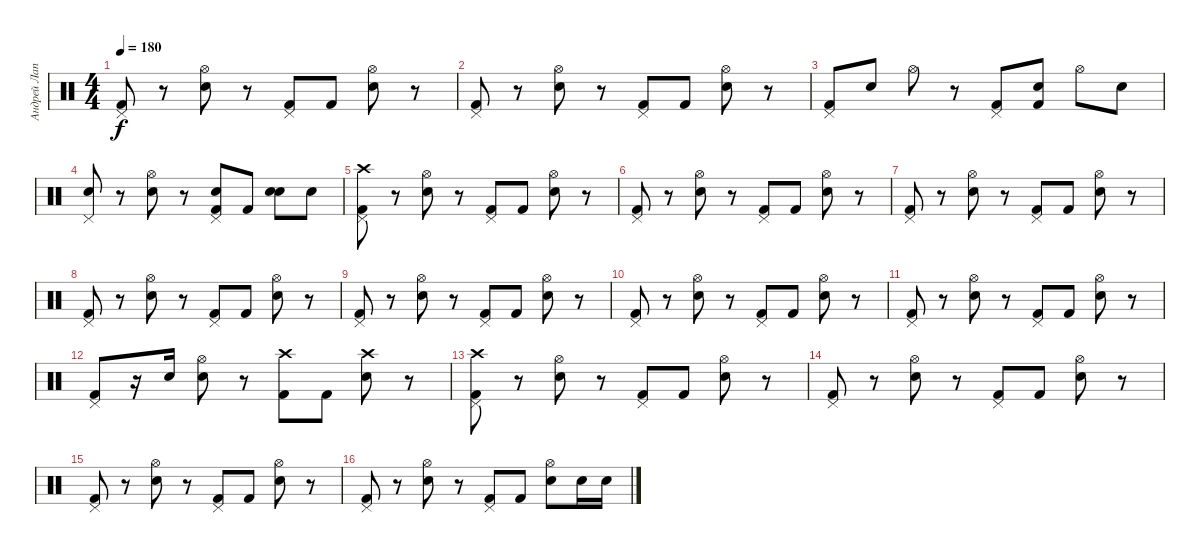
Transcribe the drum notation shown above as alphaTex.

\track ("Андрей Лаптев" "Андрей Лап") {instrument percussion}
\staff {score}
\articulation defaults
\ts (4 4)
\tempo 180
\clef neutral
\ks c
("Kick (hit) 2" "Pedal Hi-Hat (hit)").8{dy f} r.8 ("Snare (hit) 2" "Hi-Hat (open)").8 r.8 ("Kick (hit) 2" "Pedal Hi-Hat (hit)").8 "Kick (hit) 2".8 ("Snare (hit) 2" "Hi-Hat (open)").8 r.8 |
("Kick (hit) 2" "Pedal Hi-Hat (hit)").8 r.8 ("Snare (hit) 2" "Hi-Hat (open)").8 r.8 ("Kick (hit) 2" "Pedal Hi-Hat (hit)").8 "Kick (hit) 2".8 ("Snare (hit) 2" "Hi-Hat (open)").8 r.8 |
("Kick (hit) 2" "Pedal Hi-Hat (hit)").8 "Snare (hit) 2".8 "Hi-Hat (open)".8 r.8 ("Kick (hit) 2" "Pedal Hi-Hat (hit)").8 ("Snare (hit) 2" "Kick (hit) 2").8 "Hi-Hat (open)".8 "Snare (hit) 2".8 |
("Snare (hit) 2" "Pedal Hi-Hat (hit)").8 r.8 ("Snare (hit) 2" "Hi-Hat (open)").8 r.8 ("Snare (hit) 2" "Kick (hit) 2" "Pedal Hi-Hat (hit)").8 "Kick (hit) 2".8 ("Snare (hit) 2" "Electric Snare (hit)").8 "Snare (hit) 2".8 |
("Kick (hit) 2" "Crash high (hit)" "Pedal Hi-Hat (hit)").8 r.8 ("Snare (hit) 2" "Hi-Hat (open)").8 r.8 ("Kick (hit) 2" "Pedal Hi-Hat (hit)").8 "Kick (hit) 2".8 ("Snare (hit) 2" "Hi-Hat (open)").8 r.8 |
("Kick (hit) 2" "Pedal Hi-Hat (hit)").8 r.8 ("Snare (hit) 2" "Hi-Hat (open)").8 r.8 ("Kick (hit) 2" "Pedal Hi-Hat (hit)").8 "Kick (hit) 2".8 ("Snare (hit) 2" "Hi-Hat (open)").8 r.8 |
("Kick (hit) 2" "Pedal Hi-Hat (hit)").8 r.8 ("Snare (hit) 2" "Hi-Hat (open)").8 r.8 ("Kick (hit) 2" "Pedal Hi-Hat (hit)").8 "Kick (hit) 2".8 ("Snare (hit) 2" "Hi-Hat (open)").8 r.8 |
("Kick (hit) 2" "Pedal Hi-Hat (hit)").8 r.8 ("Snare (hit) 2" "Hi-Hat (open)").8 r.8 ("Kick (hit) 2" "Pedal Hi-Hat (hit)").8 "Kick (hit) 2".8 ("Snare (hit) 2" "Hi-Hat (open)").8 r.8 |
("Kick (hit) 2" "Pedal Hi-Hat (hit)").8 r.8 ("Snare (hit) 2" "Hi-Hat (open)").8 r.8 ("Kick (hit) 2" "Pedal Hi-Hat (hit)").8 "Kick (hit) 2".8 ("Snare (hit) 2" "Hi-Hat (open)").8 r.8 |
("Kick (hit) 2" "Pedal Hi-Hat (hit)").8 r.8 ("Snare (hit) 2" "Hi-Hat (open)").8 r.8 ("Kick (hit) 2" "Pedal Hi-Hat (hit)").8 "Kick (hit) 2".8 ("Snare (hit) 2" "Hi-Hat (open)").8 r.8 |
("Kick (hit) 2" "Pedal Hi-Hat (hit)").8 r.8 ("Snare (hit) 2" "Hi-Hat (open)").8 r.8 ("Kick (hit) 2" "Pedal Hi-Hat (hit)").8 "Kick (hit) 2".8 ("Snare (hit) 2" "Hi-Hat (open)").8 r.8 |
("Kick (hit) 2" "Pedal Hi-Hat (hit)").8 r.16 "Snare (hit) 2".16 ("Snare (hit) 2" "Hi-Hat (open)").8 r.8 ("Kick (hit) 2" "Crash high (hit)").8 "Kick (hit) 2".8 ("Snare (hit) 2" "Crash high (hit)").8 r.8 |
("Kick (hit) 2" "Crash high (hit)" "Pedal Hi-Hat (hit)").8 r.8 ("Snare (hit) 2" "Hi-Hat (open)").8 r.8 ("Kick (hit) 2" "Pedal Hi-Hat (hit)").8 "Kick (hit) 2".8 ("Snare (hit) 2" "Hi-Hat (open)").8 r.8 |
("Kick (hit) 2" "Pedal Hi-Hat (hit)").8 r.8 ("Snare (hit) 2" "Hi-Hat (open)").8 r.8 ("Kick (hit) 2" "Pedal Hi-Hat (hit)").8 "Kick (hit) 2".8 ("Snare (hit) 2" "Hi-Hat (open)").8 r.8 |
("Kick (hit) 2" "Pedal Hi-Hat (hit)").8 r.8 ("Snare (hit) 2" "Hi-Hat (open)").8 r.8 ("Kick (hit) 2" "Pedal Hi-Hat (hit)").8 "Kick (hit) 2".8 ("Snare (hit) 2" "Hi-Hat (open)").8 r.8 |
("Kick (hit) 2" "Pedal Hi-Hat (hit)").8 r.8 ("Snare (hit) 2" "Hi-Hat (open)").8 r.8 ("Kick (hit) 2" "Pedal Hi-Hat (hit)").8 "Kick (hit) 2".8 ("Snare (hit) 2" "Hi-Hat (open)").8 "Snare (hit) 2".16 "Snare (hit) 2".16
